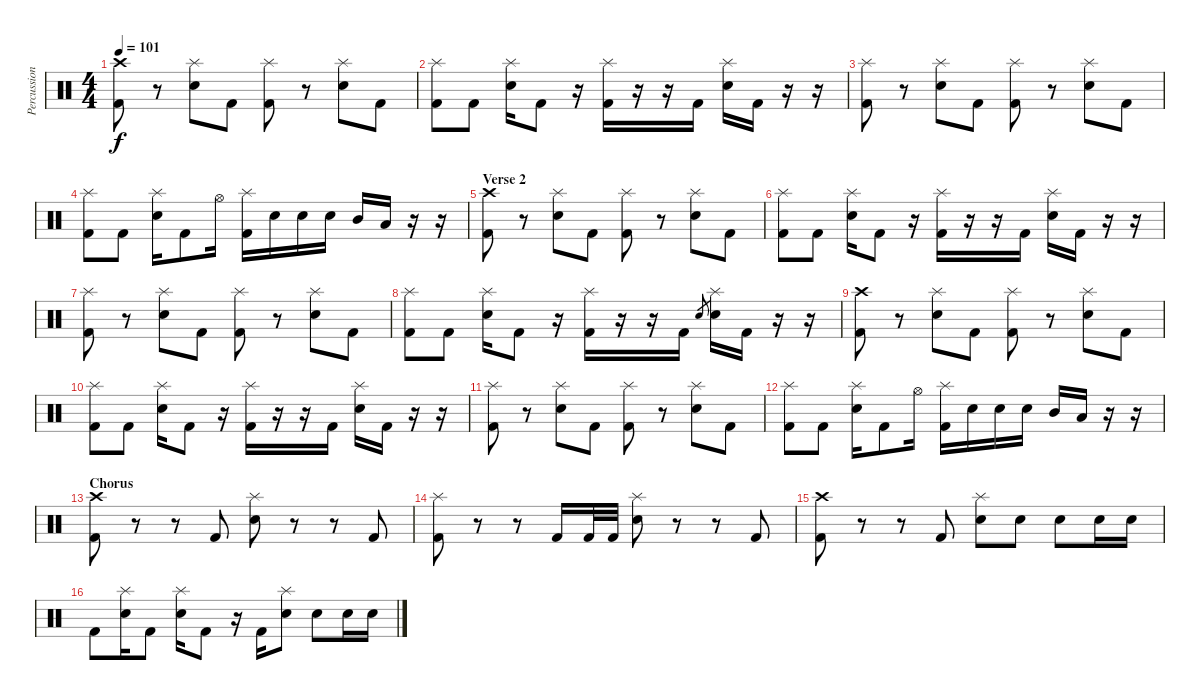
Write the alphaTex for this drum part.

\track ("Percussion" "Percussion") {instrument percussion}
\staff {score}
\articulation defaults
\ts (4 4)
\tempo 101
\clef neutral
\ks c
("Crash high (hit)" "Kick (hit) 2").8{dy f} r.8 ("Splash (hit)" "Electric Snare (hit)").8 "Kick (hit) 2".8 ("Splash (hit)" "Kick (hit) 2").8 r.8 ("Splash (hit)" "Electric Snare (hit)").8 "Kick (hit) 2".8 |
("Splash (hit)" "Kick (hit) 2").8 "Kick (hit) 2".8 ("Splash (hit)" "Electric Snare (hit)").16 "Kick (hit) 2".8 r.16 ("Splash (hit)" "Kick (hit) 2").16 r.16 r.16 "Kick (hit) 2".16 ("Splash (hit)" "Electric Snare (hit)").16 "Kick (hit) 2".16 r.16 r.16 |
("Splash (hit)" "Kick (hit) 2").8 r.8 ("Splash (hit)" "Electric Snare (hit)").8 "Kick (hit) 2".8 ("Splash (hit)" "Kick (hit) 2").8 r.8 ("Splash (hit)" "Electric Snare (hit)").8 "Kick (hit) 2".8 |
("Splash (hit)" "Kick (hit) 2").8 "Kick (hit) 2".8 ("Splash (hit)" "Electric Snare (hit)").16 "Kick (hit) 2".8 "Hi-Hat (open)".16 ("Splash (hit)" "Kick (hit) 2").16 "Electric Snare (hit)".16 "Electric Snare (hit)".16 "Electric Snare (hit)".16 "Mid Tom (hit)".16 "Low Tom (hit)".16 r.16 r.16 |
\section ("" "Verse 2")
("Crash high (hit)" "Kick (hit) 2").8 r.8 ("Splash (hit)" "Electric Snare (hit)").8 "Kick (hit) 2".8 ("Splash (hit)" "Kick (hit) 2").8 r.8 ("Splash (hit)" "Electric Snare (hit)").8 "Kick (hit) 2".8 |
("Splash (hit)" "Kick (hit) 2").8 "Kick (hit) 2".8 ("Splash (hit)" "Electric Snare (hit)").16 "Kick (hit) 2".8 r.16 ("Splash (hit)" "Kick (hit) 2").16 r.16 r.16 "Kick (hit) 2".16 ("Splash (hit)" "Electric Snare (hit)").16 "Kick (hit) 2".16 r.16 r.16 |
("Splash (hit)" "Kick (hit) 2").8 r.8 ("Splash (hit)" "Electric Snare (hit)").8 "Kick (hit) 2".8 ("Splash (hit)" "Kick (hit) 2").8 r.8 ("Splash (hit)" "Electric Snare (hit)").8 "Kick (hit) 2".8 |
("Splash (hit)" "Kick (hit) 2").8 "Kick (hit) 2".8 ("Splash (hit)" "Electric Snare (hit)").16 "Kick (hit) 2".8 r.16 ("Splash (hit)" "Kick (hit) 2").16 r.16 r.16 "Kick (hit) 2".16 "Electric Snare (hit)".8{gr} ("Splash (hit)" "Electric Snare (hit)").16 "Kick (hit) 2".16 r.16 r.16 |
("Crash high (hit)" "Kick (hit) 2").8 r.8 ("Splash (hit)" "Electric Snare (hit)").8 "Kick (hit) 2".8 ("Splash (hit)" "Kick (hit) 2").8 r.8 ("Splash (hit)" "Electric Snare (hit)").8 "Kick (hit) 2".8 |
("Splash (hit)" "Kick (hit) 2").8 "Kick (hit) 2".8 ("Splash (hit)" "Electric Snare (hit)").16 "Kick (hit) 2".8 r.16 ("Splash (hit)" "Kick (hit) 2").16 r.16 r.16 "Kick (hit) 2".16 ("Splash (hit)" "Electric Snare (hit)").16 "Kick (hit) 2".16 r.16 r.16 |
("Splash (hit)" "Kick (hit) 2").8 r.8 ("Splash (hit)" "Electric Snare (hit)").8 "Kick (hit) 2".8 ("Splash (hit)" "Kick (hit) 2").8 r.8 ("Splash (hit)" "Electric Snare (hit)").8 "Kick (hit) 2".8 |
("Splash (hit)" "Kick (hit) 2").8 "Kick (hit) 2".8 ("Splash (hit)" "Electric Snare (hit)").16 "Kick (hit) 2".8 "Hi-Hat (open)".16 ("Splash (hit)" "Kick (hit) 2").16 "Electric Snare (hit)".16 "Electric Snare (hit)".16 "Electric Snare (hit)".16 "Mid Tom (hit)".16 "Low Tom (hit)".16 r.16 r.16 |
\section ("" "Chorus")
("Crash high (hit)" "Kick (hit) 2").8 r.8 r.8 "Kick (hit) 2".8 ("Splash (hit)" "Electric Snare (hit)").8 r.8 r.8 "Kick (hit) 2".8 |
("Splash (hit)" "Kick (hit) 2").8 r.8 r.8 "Kick (hit) 2".16 "Kick (hit) 2".32 "Kick (hit) 2".32 ("Splash (hit)" "Electric Snare (hit)").8 r.8 r.8 "Kick (hit) 2".8 |
("Crash high (hit)" "Kick (hit) 2").8 r.8 r.8 "Kick (hit) 2".8 ("Splash (hit)" "Electric Snare (hit)").8 "Electric Snare (hit)".8 "Electric Snare (hit)".8 "Electric Snare (hit)".16 "Electric Snare (hit)".16 |
"Kick (hit) 2".8 ("Splash (hit)" "Electric Snare (hit)").16 "Kick (hit) 2".8 ("Splash (hit)" "Electric Snare (hit)").16 "Kick (hit) 2".8 r.16 "Kick (hit) 2".16 ("Splash (hit)" "Electric Snare (hit)").8 "Electric Snare (hit)".8 "Electric Snare (hit)".16 "Electric Snare (hit)".16
